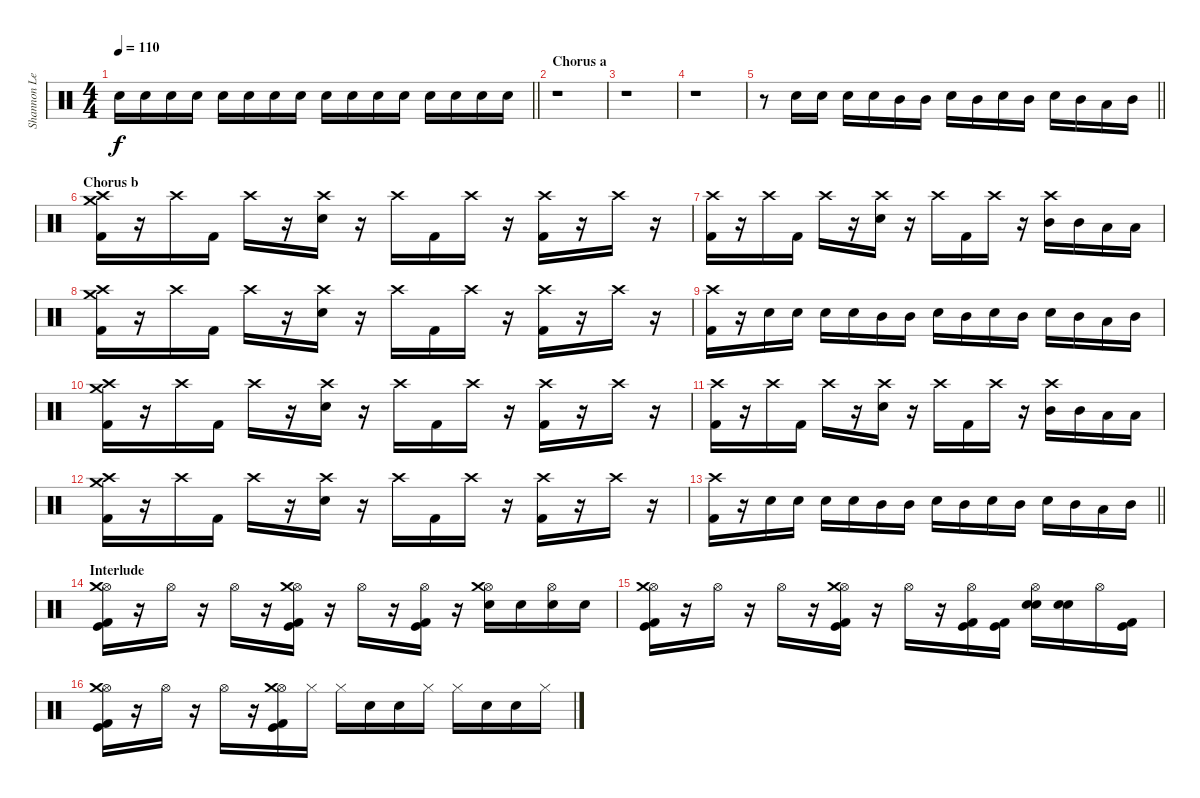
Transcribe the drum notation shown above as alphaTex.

\track ("Shannon Leto [Drums]" "Shannon Le") {instrument percussion}
\staff {score}
\articulation defaults
\ts (4 4)
\tempo 110
\clef neutral
\barLineRight lightlight
\ks c "Electric Snare (hit)".16{dy f} "Electric Snare (hit)".16 "Electric Snare (hit)".16 "Electric Snare (hit)".16 "Electric Snare (hit)".16 "Electric Snare (hit)".16 "Electric Snare (hit)".16 "Electric Snare (hit)".16 "Electric Snare (hit)".16 "Electric Snare (hit)".16 "Electric Snare (hit)".16 "Electric Snare (hit)".16 "Electric Snare (hit)".16 "Electric Snare (hit)".16 "Electric Snare (hit)".16 "Electric Snare (hit)".16
|
\section ("" "Chorus a")
r.1 |
r.1 |
r.1 |
\barLineRight lightlight
r.8 "Electric Snare (hit)".16 "Electric Snare (hit)".16 "Electric Snare (hit)".16 "Electric Snare (hit)".16 "Mid Tom (hit)".16 "Mid Tom (hit)".16 "Electric Snare (hit)".16 "Mid Tom (hit)".16 "Electric Snare (hit)".16 "Mid Tom (hit)".16 "Electric Snare (hit)".16 "Mid Tom (hit)".16 "Low Tom (hit)".16 "Mid Tom (hit)".16 |
\section ("" "Chorus b")
("Crash high (hit)" "Crash medium (hit)" "Kick (hit) 2").16 r.16 "Crash high (hit)".16 "Kick (hit) 2".16 "Crash high (hit)".16 r.16 ("Crash high (hit)" "Electric Snare (hit)").16 r.16 "Crash high (hit)".16 "Kick (hit) 2".16 "Crash high (hit)".16 r.16 ("Crash high (hit)" "Kick (hit) 2").16 r.16 "Crash high (hit)".16 r.16 |
("Crash high (hit)" "Kick (hit) 2").16 r.16 "Crash high (hit)".16 "Kick (hit) 2".16 "Crash high (hit)".16 r.16 ("Crash high (hit)" "Electric Snare (hit)").16 r.16 "Crash high (hit)".16 "Kick (hit) 2".16 "Crash high (hit)".16 r.16 ("Crash high (hit)" "Mid Tom (hit)").16 "Mid Tom (hit)".16 "Low Tom (hit)".16 "Low Tom (hit)".16 |
("Crash high (hit)" "Crash medium (hit)" "Kick (hit) 2").16 r.16 "Crash high (hit)".16 "Kick (hit) 2".16 "Crash high (hit)".16 r.16 ("Crash high (hit)" "Electric Snare (hit)").16 r.16 "Crash high (hit)".16 "Kick (hit) 2".16 "Crash high (hit)".16 r.16 ("Crash high (hit)" "Kick (hit) 2").16 r.16 "Crash high (hit)".16 r.16 |
("Crash high (hit)" "Kick (hit) 2").16 r.16 "Electric Snare (hit)".16 "Electric Snare (hit)".16 "Electric Snare (hit)".16 "Electric Snare (hit)".16 "Mid Tom (hit)".16 "Mid Tom (hit)".16 "Electric Snare (hit)".16 "Mid Tom (hit)".16 "Electric Snare (hit)".16 "Mid Tom (hit)".16 "Electric Snare (hit)".16 "Mid Tom (hit)".16 "Low Tom (hit)".16 "Mid Tom (hit)".16 |
("Crash high (hit)" "Crash medium (hit)" "Kick (hit) 2").16 r.16 "Crash high (hit)".16 "Kick (hit) 2".16 "Crash high (hit)".16 r.16 ("Crash high (hit)" "Electric Snare (hit)").16 r.16 "Crash high (hit)".16 "Kick (hit) 2".16 "Crash high (hit)".16 r.16 ("Crash high (hit)" "Kick (hit) 2").16 r.16 "Crash high (hit)".16 r.16 |
("Crash high (hit)" "Kick (hit) 2").16 r.16 "Crash high (hit)".16 "Kick (hit) 2".16 "Crash high (hit)".16 r.16 ("Crash high (hit)" "Electric Snare (hit)").16 r.16 "Crash high (hit)".16 "Kick (hit) 2".16 "Crash high (hit)".16 r.16 ("Crash high (hit)" "Mid Tom (hit)").16 "Mid Tom (hit)".16 "Low Tom (hit)".16 "Low Tom (hit)".16 |
("Crash high (hit)" "Crash medium (hit)" "Kick (hit) 2").16 r.16 "Crash high (hit)".16 "Kick (hit) 2".16 "Crash high (hit)".16 r.16 ("Crash high (hit)" "Electric Snare (hit)").16 r.16 "Crash high (hit)".16 "Kick (hit) 2".16 "Crash high (hit)".16 r.16 ("Crash high (hit)" "Kick (hit) 2").16 r.16 "Crash high (hit)".16 r.16 |
\barLineRight lightlight
("Crash high (hit)" "Kick (hit) 2").16 r.16 "Electric Snare (hit)".16 "Electric Snare (hit)".16 "Electric Snare (hit)".16 "Electric Snare (hit)".16 "Mid Tom (hit)".16 "Mid Tom (hit)".16 "Electric Snare (hit)".16 "Mid Tom (hit)".16 "Electric Snare (hit)".16 "Mid Tom (hit)".16 "Electric Snare (hit)".16 "Mid Tom (hit)".16 "Low Tom (hit)".16 "Mid Tom (hit)".16 |
\section ("" "Interlude")
("Hi-Hat (open)" "Crash medium (hit)" "Kick (hit)" "Kick (hit) 2").16 r.16 "Hi-Hat (open)".16 r.16 "Hi-Hat (open)".16 r.16 ("Hi-Hat (open)" "Crash medium (hit)" "Kick (hit)" "Kick (hit) 2").16 r.16 "Hi-Hat (open)".16 r.16 ("Hi-Hat (open)" "Kick (hit)" "Kick (hit) 2").16 r.16 ("Hi-Hat (open)" "Crash medium (hit)" "Hand Clap (hit)").16 "Hand Clap (hit)".16 ("Hi-Hat (open)" "Hand Clap (hit)").16 "Hand Clap (hit)".16 |
("Hi-Hat (open)" "Crash medium (hit)" "Kick (hit)" "Kick (hit) 2").16 r.16 "Hi-Hat (open)".16 r.16 "Hi-Hat (open)".16 r.16 ("Hi-Hat (open)" "Crash medium (hit)" "Kick (hit)" "Kick (hit) 2").16 r.16 "Hi-Hat (open)".16 r.16 ("Hi-Hat (open)" "Kick (hit)" "Kick (hit) 2").16 ("Kick (hit)" "Kick (hit) 2").16 ("Hi-Hat (open)" "Hand Clap (hit)" "Electric Snare (hit)").16 ("Hand Clap (hit)" "Electric Snare (hit)").16 "Hi-Hat (open)".16 ("Kick (hit)" "Kick (hit) 2").16 |
("Hi-Hat (open)" "Crash medium (hit)" "Kick (hit)" "Kick (hit) 2").16 r.16 "Hi-Hat (open)".16 r.16 "Hi-Hat (open)".16 r.16 ("Hi-Hat (open)" "Crash medium (hit)" "Kick (hit)" "Kick (hit) 2").16 "Hi-Hat (closed)".16 "Hi-Hat (closed)".16 "Hand Clap (hit)".16 "Hand Clap (hit)".16 "Hi-Hat (closed)".16 "Hi-Hat (closed)".16 "Hand Clap (hit)".16 "Hand Clap (hit)".16 "Hi-Hat (closed)".16
